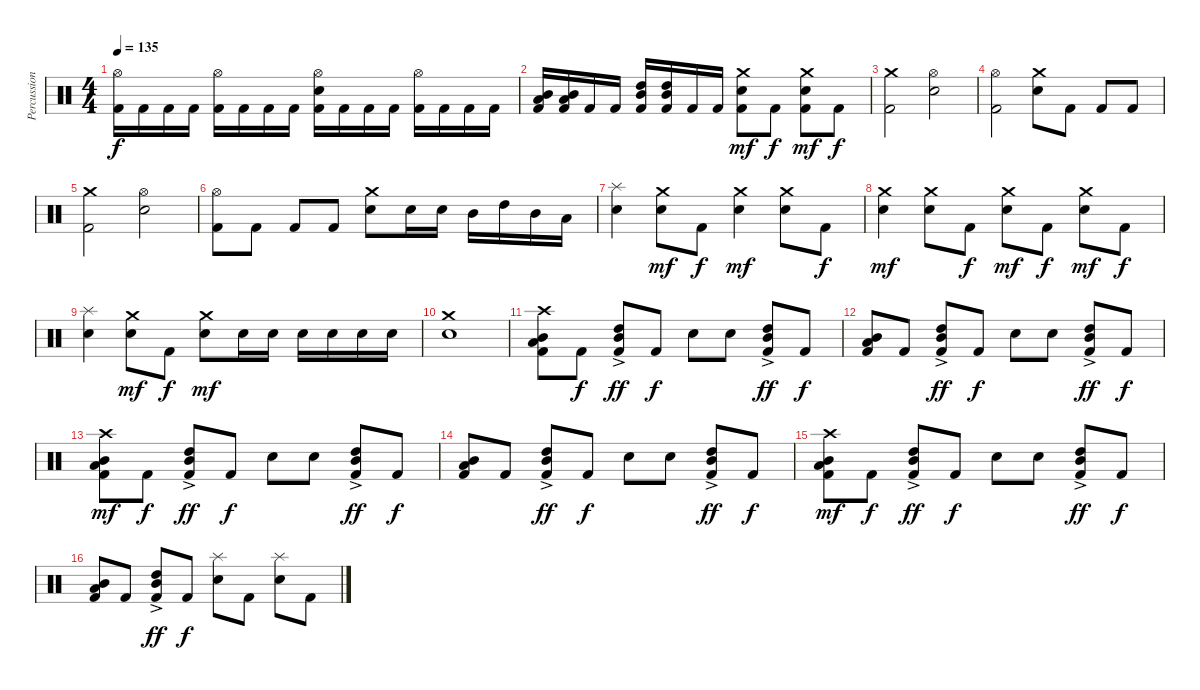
\track ("Percussion" "Percussion") {instrument percussion}
\staff {score}
\articulation defaults
\ts (4 4)
\tempo 135
\clef neutral
\ks c
("Hi-Hat (open)" "Kick (hit) 2").16{dy f} "Kick (hit) 2".16 "Kick (hit) 2".16 "Kick (hit) 2".16 ("Hi-Hat (open)" "Kick (hit) 2").16 "Kick (hit) 2".16 "Kick (hit) 2".16 "Kick (hit) 2".16 ("Hi-Hat (open)" "Snare (hit) 2" "Kick (hit) 2").16 "Kick (hit) 2".16 "Kick (hit) 2".16 "Kick (hit) 2".16 ("Hi-Hat (open)" "Kick (hit) 2").16 "Kick (hit) 2".16 "Kick (hit) 2".16 "Kick (hit) 2".16 |
("Mid Tom (hit)" "Low Tom (hit)" "Kick (hit) 2").16 ("Mid Tom (hit)" "Low Tom (hit)" "Kick (hit) 2").16 "Kick (hit) 2".16 "Kick (hit) 2".16 ("High Tom (hit)" "Mid Tom (hit)" "Kick (hit) 2").16 ("High Tom (hit)" "Mid Tom (hit)" "Kick (hit) 2").16 "Kick (hit) 2".16 "Kick (hit) 2".16 ("Crash medium (hit)" "Snare (hit) 2" "Kick (hit) 2").8{dy mf} "Kick (hit) 2".8{dy f} ("Crash medium (hit)" "Snare (hit) 2" "Kick (hit) 2").8{dy mf} "Kick (hit) 2".8{dy f} |
("Crash medium (hit)" "Kick (hit) 2").2 ("Hi-Hat (open)" "Snare (hit) 2").2 |
("Hi-Hat (open)" "Kick (hit) 2").2 ("Crash medium (hit)" "Snare (hit) 2").8 "Kick (hit) 2".8 "Kick (hit) 2".8 "Kick (hit) 2".8 |
("Crash medium (hit)" "Kick (hit) 2").2 ("Hi-Hat (open)" "Snare (hit) 2").2 |
("Hi-Hat (open)" "Kick (hit) 2").8 "Kick (hit) 2".8 "Kick (hit) 2".8 "Kick (hit) 2".8 ("Crash medium (hit)" "Snare (hit) 2").8 "Snare (hit) 2".16 "Snare (hit) 2".16 "Mid Tom (hit)".16 "High Tom (hit)".16 "Mid Tom (hit)".16 "Low Tom (hit)".16 |
("Splash (hit)" "Snare (hit) 2").4 ("Crash medium (hit)" "Snare (hit) 2").8{dy mf} "Kick (hit) 2".8{dy f} ("Crash medium (hit)" "Snare (hit) 2").4{dy mf} ("Crash medium (hit)" "Snare (hit) 2").8 "Kick (hit) 2".8{dy f} |
("Crash medium (hit)" "Snare (hit) 2").4{dy mf} ("Crash medium (hit)" "Snare (hit) 2").8 "Kick (hit) 2".8{dy f} ("Crash medium (hit)" "Snare (hit) 2").8{dy mf} "Kick (hit) 2".8{dy f} ("Crash medium (hit)" "Snare (hit) 2").8{dy mf} "Kick (hit) 2".8{dy f} |
("Splash (hit)" "Snare (hit) 2").4 ("Crash medium (hit)" "Snare (hit) 2").8{dy mf} "Kick (hit) 2".8{dy f} ("Crash medium (hit)" "Snare (hit) 2").8{dy mf} "Snare (hit) 2".16 "Snare (hit) 2".16 "Snare (hit) 2".16 "Snare (hit) 2".16 "Snare (hit) 2".16 "Snare (hit) 2".16 |
("Crash medium (hit)" "Snare (hit) 2").1 |
("Crash high (hit)" "Mid Tom (hit)" "Low Tom (hit)" "Kick (hit) 2").8 "Kick (hit) 2".8{dy f} ("High Tom (hit)"{ac} "Mid Tom (hit)"{ac} "Kick (hit) 2").8{dy ff} "Kick (hit) 2".8{dy f} "Snare (hit) 2".8 "Snare (hit) 2".8 ("High Tom (hit)"{ac} "Mid Tom (hit)"{ac} "Kick (hit) 2").8{dy ff} "Kick (hit) 2".8{dy f} |
("Mid Tom (hit)" "Low Tom (hit)" "Kick (hit) 2").8 "Kick (hit) 2".8 ("High Tom (hit)"{ac} "Mid Tom (hit)"{ac} "Kick (hit) 2").8{dy ff} "Kick (hit) 2".8{dy f} "Snare (hit) 2".8 "Snare (hit) 2".8 ("High Tom (hit)"{ac} "Mid Tom (hit)"{ac} "Kick (hit) 2").8{dy ff} "Kick (hit) 2".8{dy f} |
("Crash high (hit)" "Mid Tom (hit)" "Low Tom (hit)" "Kick (hit) 2").8{dy mf} "Kick (hit) 2".8{dy f} ("High Tom (hit)"{ac} "Mid Tom (hit)"{ac} "Kick (hit) 2").8{dy ff} "Kick (hit) 2".8{dy f} "Snare (hit) 2".8 "Snare (hit) 2".8 ("High Tom (hit)"{ac} "Mid Tom (hit)"{ac} "Kick (hit) 2").8{dy ff} "Kick (hit) 2".8{dy f} |
("Mid Tom (hit)" "Low Tom (hit)" "Kick (hit) 2").8 "Kick (hit) 2".8 ("High Tom (hit)"{ac} "Mid Tom (hit)"{ac} "Kick (hit) 2").8{dy ff} "Kick (hit) 2".8{dy f} "Snare (hit) 2".8 "Snare (hit) 2".8 ("High Tom (hit)"{ac} "Mid Tom (hit)"{ac} "Kick (hit) 2").8{dy ff} "Kick (hit) 2".8{dy f} |
("Crash high (hit)" "Mid Tom (hit)" "Low Tom (hit)" "Kick (hit) 2").8{dy mf} "Kick (hit) 2".8{dy f} ("High Tom (hit)"{ac} "Mid Tom (hit)"{ac} "Kick (hit) 2").8{dy ff} "Kick (hit) 2".8{dy f} "Snare (hit) 2".8 "Snare (hit) 2".8 ("High Tom (hit)"{ac} "Mid Tom (hit)"{ac} "Kick (hit) 2").8{dy ff} "Kick (hit) 2".8{dy f} |
("Mid Tom (hit)" "Low Tom (hit)" "Kick (hit) 2").8 "Kick (hit) 2".8 ("High Tom (hit)"{ac} "Mid Tom (hit)"{ac} "Kick (hit) 2").8{dy ff} "Kick (hit) 2".8{dy f} ("Splash (hit)" "Snare (hit) 2").8 "Kick (hit) 2".8 ("Splash (hit)" "Snare (hit) 2").8 "Kick (hit) 2".8
